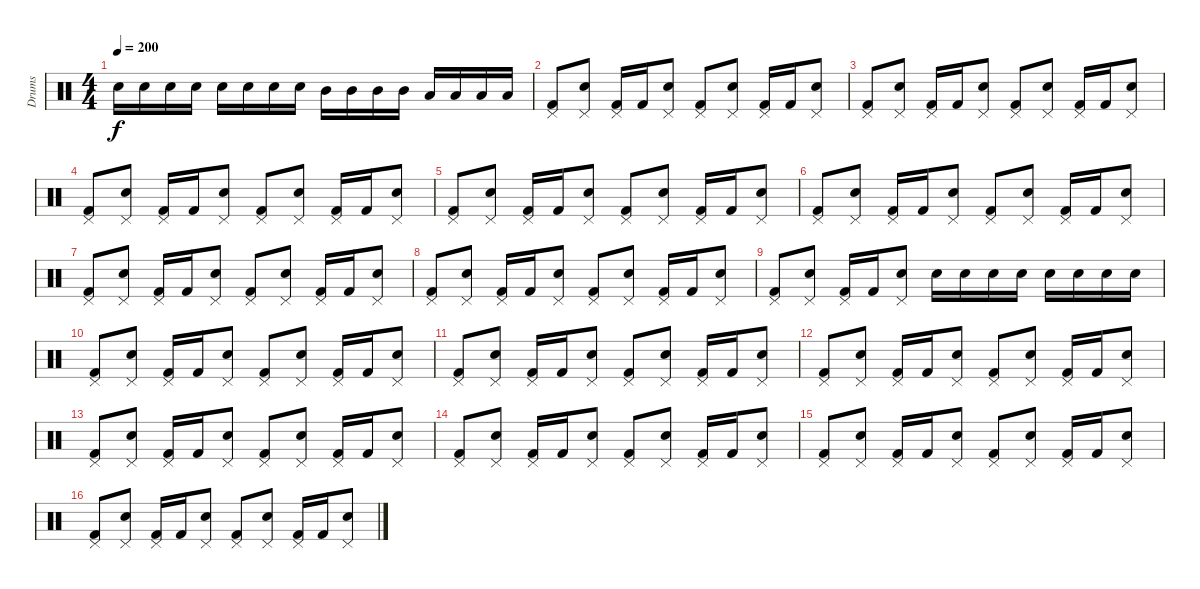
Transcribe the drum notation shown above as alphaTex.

\track ("Drums" "Drums") {instrument percussion}
\staff {score}
\articulation defaults
\ts (4 4)
\tempo 200
\clef neutral
\ks c "Snare (hit) 2".16{dy f} "Snare (hit) 2".16 "Snare (hit) 2".16 "Snare (hit) 2".16 "Snare (hit) 2".16 "Snare (hit) 2".16 "Snare (hit) 2".16 "Snare (hit) 2".16 "Mid Tom (hit)".16 "Mid Tom (hit)".16 "Mid Tom (hit)".16 "Mid Tom (hit)".16 "Low Tom (hit)".16 "Low Tom (hit)".16 "Low Tom (hit)".16 "Low Tom (hit)".16
|
("Pedal Hi-Hat (hit)" "Kick (hit) 2").8 ("Pedal Hi-Hat (hit)" "Snare (hit) 2").8 ("Pedal Hi-Hat (hit)" "Kick (hit) 2").16 "Kick (hit) 2".16 ("Pedal Hi-Hat (hit)" "Snare (hit) 2").8 ("Pedal Hi-Hat (hit)" "Kick (hit) 2").8 ("Pedal Hi-Hat (hit)" "Snare (hit) 2").8 ("Pedal Hi-Hat (hit)" "Kick (hit) 2").16 "Kick (hit) 2".16 ("Pedal Hi-Hat (hit)" "Snare (hit) 2").8 |
("Pedal Hi-Hat (hit)" "Kick (hit) 2").8 ("Pedal Hi-Hat (hit)" "Snare (hit) 2").8 ("Pedal Hi-Hat (hit)" "Kick (hit) 2").16 "Kick (hit) 2".16 ("Pedal Hi-Hat (hit)" "Snare (hit) 2").8 ("Pedal Hi-Hat (hit)" "Kick (hit) 2").8 ("Pedal Hi-Hat (hit)" "Snare (hit) 2").8 ("Pedal Hi-Hat (hit)" "Kick (hit) 2").16 "Kick (hit) 2".16 ("Pedal Hi-Hat (hit)" "Snare (hit) 2").8 |
("Pedal Hi-Hat (hit)" "Kick (hit) 2").8 ("Pedal Hi-Hat (hit)" "Snare (hit) 2").8 ("Pedal Hi-Hat (hit)" "Kick (hit) 2").16 "Kick (hit) 2".16 ("Pedal Hi-Hat (hit)" "Snare (hit) 2").8 ("Pedal Hi-Hat (hit)" "Kick (hit) 2").8 ("Pedal Hi-Hat (hit)" "Snare (hit) 2").8 ("Pedal Hi-Hat (hit)" "Kick (hit) 2").16 "Kick (hit) 2".16 ("Pedal Hi-Hat (hit)" "Snare (hit) 2").8 |
("Pedal Hi-Hat (hit)" "Kick (hit) 2").8 ("Pedal Hi-Hat (hit)" "Snare (hit) 2").8 ("Pedal Hi-Hat (hit)" "Kick (hit) 2").16 "Kick (hit) 2".16 ("Pedal Hi-Hat (hit)" "Snare (hit) 2").8 ("Pedal Hi-Hat (hit)" "Kick (hit) 2").8 ("Pedal Hi-Hat (hit)" "Snare (hit) 2").8 ("Pedal Hi-Hat (hit)" "Kick (hit) 2").16 "Kick (hit) 2".16 ("Pedal Hi-Hat (hit)" "Snare (hit) 2").8 |
("Pedal Hi-Hat (hit)" "Kick (hit) 2").8 ("Pedal Hi-Hat (hit)" "Snare (hit) 2").8 ("Pedal Hi-Hat (hit)" "Kick (hit) 2").16 "Kick (hit) 2".16 ("Pedal Hi-Hat (hit)" "Snare (hit) 2").8 ("Pedal Hi-Hat (hit)" "Kick (hit) 2").8 ("Pedal Hi-Hat (hit)" "Snare (hit) 2").8 ("Pedal Hi-Hat (hit)" "Kick (hit) 2").16 "Kick (hit) 2".16 ("Pedal Hi-Hat (hit)" "Snare (hit) 2").8 |
("Pedal Hi-Hat (hit)" "Kick (hit) 2").8 ("Pedal Hi-Hat (hit)" "Snare (hit) 2").8 ("Pedal Hi-Hat (hit)" "Kick (hit) 2").16 "Kick (hit) 2".16 ("Pedal Hi-Hat (hit)" "Snare (hit) 2").8 ("Pedal Hi-Hat (hit)" "Kick (hit) 2").8 ("Pedal Hi-Hat (hit)" "Snare (hit) 2").8 ("Pedal Hi-Hat (hit)" "Kick (hit) 2").16 "Kick (hit) 2".16 ("Pedal Hi-Hat (hit)" "Snare (hit) 2").8 |
("Pedal Hi-Hat (hit)" "Kick (hit) 2").8 ("Pedal Hi-Hat (hit)" "Snare (hit) 2").8 ("Pedal Hi-Hat (hit)" "Kick (hit) 2").16 "Kick (hit) 2".16 ("Pedal Hi-Hat (hit)" "Snare (hit) 2").8 ("Pedal Hi-Hat (hit)" "Kick (hit) 2").8 ("Pedal Hi-Hat (hit)" "Snare (hit) 2").8 ("Pedal Hi-Hat (hit)" "Kick (hit) 2").16 "Kick (hit) 2".16 ("Pedal Hi-Hat (hit)" "Snare (hit) 2").8 |
("Pedal Hi-Hat (hit)" "Kick (hit) 2").8 ("Pedal Hi-Hat (hit)" "Snare (hit) 2").8 ("Pedal Hi-Hat (hit)" "Kick (hit) 2").16 "Kick (hit) 2".16 ("Pedal Hi-Hat (hit)" "Snare (hit) 2").8 "Snare (hit) 2".16 "Snare (hit) 2".16 "Snare (hit) 2".16 "Snare (hit) 2".16 "Snare (hit) 2".16 "Snare (hit) 2".16 "Snare (hit) 2".16 "Snare (hit) 2".16 |
("Pedal Hi-Hat (hit)" "Kick (hit) 2").8 ("Pedal Hi-Hat (hit)" "Snare (hit) 2").8 ("Pedal Hi-Hat (hit)" "Kick (hit) 2").16 "Kick (hit) 2".16 ("Pedal Hi-Hat (hit)" "Snare (hit) 2").8 ("Pedal Hi-Hat (hit)" "Kick (hit) 2").8 ("Pedal Hi-Hat (hit)" "Snare (hit) 2").8 ("Pedal Hi-Hat (hit)" "Kick (hit) 2").16 "Kick (hit) 2".16 ("Pedal Hi-Hat (hit)" "Snare (hit) 2").8 |
("Pedal Hi-Hat (hit)" "Kick (hit) 2").8 ("Pedal Hi-Hat (hit)" "Snare (hit) 2").8 ("Pedal Hi-Hat (hit)" "Kick (hit) 2").16 "Kick (hit) 2".16 ("Pedal Hi-Hat (hit)" "Snare (hit) 2").8 ("Pedal Hi-Hat (hit)" "Kick (hit) 2").8 ("Pedal Hi-Hat (hit)" "Snare (hit) 2").8 ("Pedal Hi-Hat (hit)" "Kick (hit) 2").16 "Kick (hit) 2".16 ("Pedal Hi-Hat (hit)" "Snare (hit) 2").8 |
("Pedal Hi-Hat (hit)" "Kick (hit) 2").8 ("Pedal Hi-Hat (hit)" "Snare (hit) 2").8 ("Pedal Hi-Hat (hit)" "Kick (hit) 2").16 "Kick (hit) 2".16 ("Pedal Hi-Hat (hit)" "Snare (hit) 2").8 ("Pedal Hi-Hat (hit)" "Kick (hit) 2").8 ("Pedal Hi-Hat (hit)" "Snare (hit) 2").8 ("Pedal Hi-Hat (hit)" "Kick (hit) 2").16 "Kick (hit) 2".16 ("Pedal Hi-Hat (hit)" "Snare (hit) 2").8 |
("Pedal Hi-Hat (hit)" "Kick (hit) 2").8 ("Pedal Hi-Hat (hit)" "Snare (hit) 2").8 ("Pedal Hi-Hat (hit)" "Kick (hit) 2").16 "Kick (hit) 2".16 ("Pedal Hi-Hat (hit)" "Snare (hit) 2").8 ("Pedal Hi-Hat (hit)" "Kick (hit) 2").8 ("Pedal Hi-Hat (hit)" "Snare (hit) 2").8 ("Pedal Hi-Hat (hit)" "Kick (hit) 2").16 "Kick (hit) 2".16 ("Pedal Hi-Hat (hit)" "Snare (hit) 2").8 |
("Pedal Hi-Hat (hit)" "Kick (hit) 2").8 ("Pedal Hi-Hat (hit)" "Snare (hit) 2").8 ("Pedal Hi-Hat (hit)" "Kick (hit) 2").16 "Kick (hit) 2".16 ("Pedal Hi-Hat (hit)" "Snare (hit) 2").8 ("Pedal Hi-Hat (hit)" "Kick (hit) 2").8 ("Pedal Hi-Hat (hit)" "Snare (hit) 2").8 ("Pedal Hi-Hat (hit)" "Kick (hit) 2").16 "Kick (hit) 2".16 ("Pedal Hi-Hat (hit)" "Snare (hit) 2").8 |
("Pedal Hi-Hat (hit)" "Kick (hit) 2").8 ("Pedal Hi-Hat (hit)" "Snare (hit) 2").8 ("Pedal Hi-Hat (hit)" "Kick (hit) 2").16 "Kick (hit) 2".16 ("Pedal Hi-Hat (hit)" "Snare (hit) 2").8 ("Pedal Hi-Hat (hit)" "Kick (hit) 2").8 ("Pedal Hi-Hat (hit)" "Snare (hit) 2").8 ("Pedal Hi-Hat (hit)" "Kick (hit) 2").16 "Kick (hit) 2".16 ("Pedal Hi-Hat (hit)" "Snare (hit) 2").8 |
("Pedal Hi-Hat (hit)" "Kick (hit) 2").8 ("Pedal Hi-Hat (hit)" "Snare (hit) 2").8 ("Pedal Hi-Hat (hit)" "Kick (hit) 2").16 "Kick (hit) 2".16 ("Pedal Hi-Hat (hit)" "Snare (hit) 2").8 ("Pedal Hi-Hat (hit)" "Kick (hit) 2").8 ("Pedal Hi-Hat (hit)" "Snare (hit) 2").8 ("Pedal Hi-Hat (hit)" "Kick (hit) 2").16 "Kick (hit) 2".16 ("Pedal Hi-Hat (hit)" "Snare (hit) 2").8
